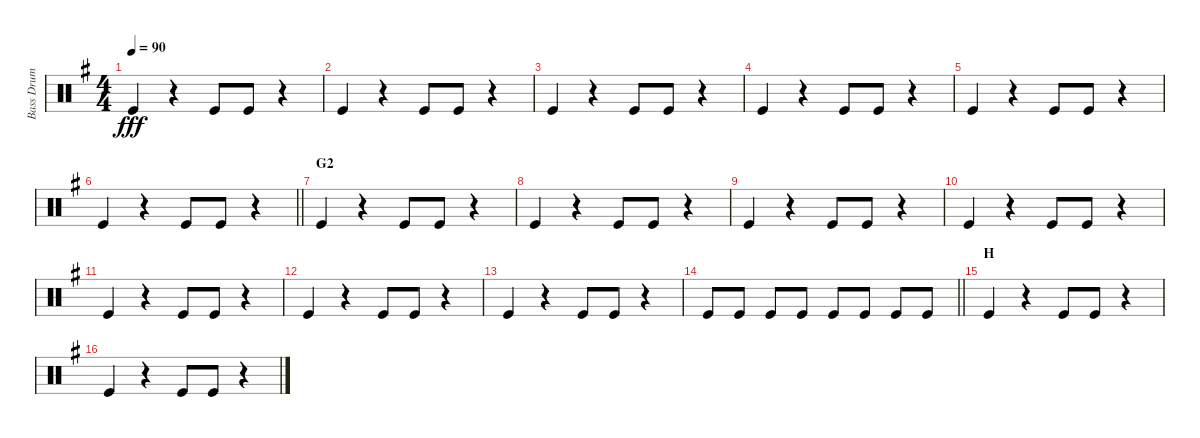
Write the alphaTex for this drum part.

\track ("Bass Drum" "Bass Drum") {instrument percussion}
\staff {score}
\articulation defaults
\ts (4 4)
\tempo 90
\clef neutral
\ks g "Kick (hit)".4{dy fff}
r.4 "Kick (hit)".8 "Kick (hit)".8 r.4 |
"Kick (hit)".4 r.4 "Kick (hit)".8 "Kick (hit)".8 r.4 |
"Kick (hit)".4 r.4 "Kick (hit)".8 "Kick (hit)".8 r.4 |
"Kick (hit)".4 r.4 "Kick (hit)".8 "Kick (hit)".8 r.4 |
"Kick (hit)".4 r.4 "Kick (hit)".8 "Kick (hit)".8 r.4 |
\barLineRight lightlight "Kick (hit)".4
r.4 "Kick (hit)".8 "Kick (hit)".8 r.4 |
\section ("" "G2")
"Kick (hit)".4 r.4 "Kick (hit)".8 "Kick (hit)".8 r.4 |
"Kick (hit)".4 r.4 "Kick (hit)".8 "Kick (hit)".8 r.4 |
"Kick (hit)".4 r.4 "Kick (hit)".8 "Kick (hit)".8 r.4 |
"Kick (hit)".4 r.4 "Kick (hit)".8 "Kick (hit)".8 r.4 |
"Kick (hit)".4 r.4 "Kick (hit)".8 "Kick (hit)".8 r.4 |
"Kick (hit)".4 r.4 "Kick (hit)".8 "Kick (hit)".8 r.4 |
"Kick (hit)".4 r.4 "Kick (hit)".8 "Kick (hit)".8 r.4 |
\barLineRight lightlight "Kick (hit)".8 "Kick (hit)".8 "Kick (hit)".8 "Kick (hit)".8 "Kick (hit)".8 "Kick (hit)".8 "Kick (hit)".8 "Kick (hit)".8
|
\section ("" "H")
"Kick (hit)".4 r.4 "Kick (hit)".8 "Kick (hit)".8 r.4 |
"Kick (hit)".4 r.4 "Kick (hit)".8 "Kick (hit)".8 r.4
